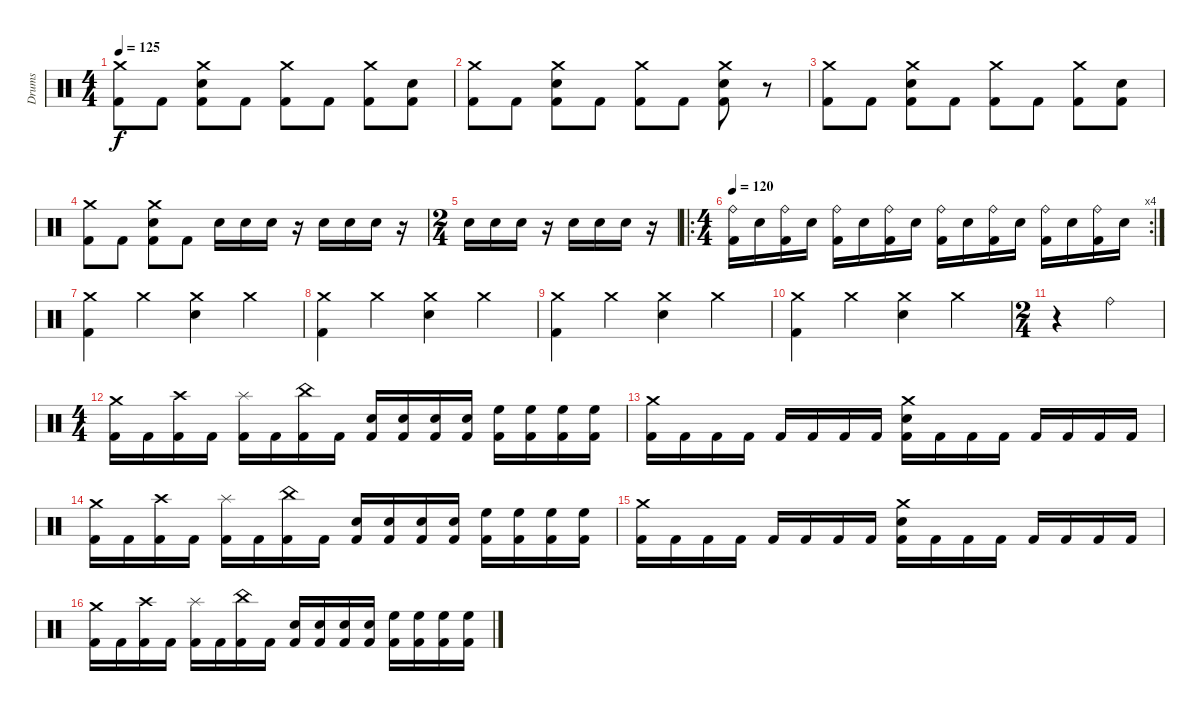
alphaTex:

\track ("Drums" "Drums") {instrument percussion}
\staff {score}
\articulation defaults
\ts (4 4)
\tempo 125
\clef neutral
\ks c
("Crash medium (hit)" "Kick (hit) 2").8{dy f} "Kick (hit) 2".8 ("Crash medium (hit)" "Snare (hit) 2" "Kick (hit) 2").8 "Kick (hit) 2".8 ("Crash medium (hit)" "Kick (hit) 2").8 "Kick (hit) 2".8 ("Crash medium (hit)" "Kick (hit) 2").8 ("Snare (hit) 2" "Kick (hit) 2").8 |
("Crash medium (hit)" "Kick (hit) 2").8 "Kick (hit) 2".8 ("Crash medium (hit)" "Snare (hit) 2" "Kick (hit) 2").8 "Kick (hit) 2".8 ("Crash medium (hit)" "Kick (hit) 2").8 "Kick (hit) 2".8 ("Crash medium (hit)" "Snare (hit) 2" "Kick (hit) 2").8 r.8 |
("Crash medium (hit)" "Kick (hit) 2").8 "Kick (hit) 2".8 ("Crash medium (hit)" "Snare (hit) 2" "Kick (hit) 2").8 "Kick (hit) 2".8 ("Crash medium (hit)" "Kick (hit) 2").8 "Kick (hit) 2".8 ("Crash medium (hit)" "Kick (hit) 2").8 ("Snare (hit) 2" "Kick (hit) 2").8 |
("Crash medium (hit)" "Kick (hit) 2").8 "Kick (hit) 2".8 ("Crash medium (hit)" "Snare (hit) 2" "Kick (hit) 2").8 "Kick (hit) 2".8 "Snare (hit) 2".16 "Snare (hit) 2".16 "Snare (hit) 2".16 r.16 "Snare (hit) 2".16 "Snare (hit) 2".16 "Snare (hit) 2".16 r.16 |
\ts (2 4)
"Snare (hit) 2".16 "Snare (hit) 2".16 "Snare (hit) 2".16 r.16 "Snare (hit) 2".16 "Snare (hit) 2".16 "Snare (hit) 2".16 r.16 |
\ro
\rc 4
\ts (4 4)
\tempo 120
("Ride (bell)" "Kick (hit) 2").16 "Snare (hit) 2".16 ("Ride (bell)" "Kick (hit) 2").16 "Snare (hit) 2".16 ("Ride (bell)" "Kick (hit) 2").16 "Snare (hit) 2".16 ("Ride (bell)" "Kick (hit) 2").16 "Snare (hit) 2".16 ("Ride (bell)" "Kick (hit) 2").16 "Snare (hit) 2".16 ("Ride (bell)" "Kick (hit) 2").16 "Snare (hit) 2".16 ("Ride (bell)" "Kick (hit) 2").16 "Snare (hit) 2".16 ("Ride (bell)" "Kick (hit) 2").16 "Snare (hit) 2".16 |
("Crash medium (hit)" "Kick (hit) 2").4 "Crash medium (hit)".4 ("Crash medium (hit)" "Snare (hit) 2").4 "Crash medium (hit)".4 |
("Crash medium (hit)" "Kick (hit) 2").4 "Crash medium (hit)".4 ("Crash medium (hit)" "Snare (hit) 2").4 "Crash medium (hit)".4 |
("Crash medium (hit)" "Kick (hit) 2").4 "Crash medium (hit)".4 ("Crash medium (hit)" "Snare (hit) 2").4 "Crash medium (hit)".4 |
("Crash medium (hit)" "Kick (hit) 2").4 "Crash medium (hit)".4 ("Crash medium (hit)" "Snare (hit) 2").4 "Crash medium (hit)".4 |
\ts (2 4)
r.4 "Ride (bell)".4 |
\ts (4 4)
("Crash medium (hit)" "Kick (hit) 2").16 "Kick (hit) 2".16 ("Crash high (hit)" "Kick (hit) 2").16 "Kick (hit) 2".16 ("Splash (hit)" "Kick (hit) 2").16 "Kick (hit) 2".16 ("China (hit)" "Kick (hit) 2").16 "Kick (hit) 2".16 ("Snare (hit) 2" "Kick (hit) 2").16 ("Snare (hit) 2" "Kick (hit) 2").16 ("Snare (hit) 2" "Kick (hit) 2").16 ("Snare (hit) 2" "Kick (hit) 2").16 ("High Floor Tom (hit)" "Kick (hit) 2").16 ("High Floor Tom (hit)" "Kick (hit) 2").16 ("High Floor Tom (hit)" "Kick (hit) 2").16 ("High Floor Tom (hit)" "Kick (hit) 2").16 |
("Crash medium (hit)" "Kick (hit) 2").16 "Kick (hit) 2".16 "Kick (hit) 2".16 "Kick (hit) 2".16 "Kick (hit) 2".16 "Kick (hit) 2".16 "Kick (hit) 2".16 "Kick (hit) 2".16 ("Crash medium (hit)" "Snare (hit) 2" "Kick (hit) 2").16 "Kick (hit) 2".16 "Kick (hit) 2".16 "Kick (hit) 2".16 "Kick (hit) 2".16 "Kick (hit) 2".16 "Kick (hit) 2".16 "Kick (hit) 2".16 |
("Crash medium (hit)" "Kick (hit) 2").16 "Kick (hit) 2".16 ("Crash high (hit)" "Kick (hit) 2").16 "Kick (hit) 2".16 ("Splash (hit)" "Kick (hit) 2").16 "Kick (hit) 2".16 ("China (hit)" "Kick (hit) 2").16 "Kick (hit) 2".16 ("Snare (hit) 2" "Kick (hit) 2").16 ("Snare (hit) 2" "Kick (hit) 2").16 ("Snare (hit) 2" "Kick (hit) 2").16 ("Snare (hit) 2" "Kick (hit) 2").16 ("High Floor Tom (hit)" "Kick (hit) 2").16 ("High Floor Tom (hit)" "Kick (hit) 2").16 ("High Floor Tom (hit)" "Kick (hit) 2").16 ("High Floor Tom (hit)" "Kick (hit) 2").16 |
("Crash medium (hit)" "Kick (hit) 2").16 "Kick (hit) 2".16 "Kick (hit) 2".16 "Kick (hit) 2".16 "Kick (hit) 2".16 "Kick (hit) 2".16 "Kick (hit) 2".16 "Kick (hit) 2".16 ("Crash medium (hit)" "Snare (hit) 2" "Kick (hit) 2").16 "Kick (hit) 2".16 "Kick (hit) 2".16 "Kick (hit) 2".16 "Kick (hit) 2".16 "Kick (hit) 2".16 "Kick (hit) 2".16 "Kick (hit) 2".16 |
("Crash medium (hit)" "Kick (hit) 2").16 "Kick (hit) 2".16 ("Crash high (hit)" "Kick (hit) 2").16 "Kick (hit) 2".16 ("Splash (hit)" "Kick (hit) 2").16 "Kick (hit) 2".16 ("China (hit)" "Kick (hit) 2").16 "Kick (hit) 2".16 ("Snare (hit) 2" "Kick (hit) 2").16 ("Snare (hit) 2" "Kick (hit) 2").16 ("Snare (hit) 2" "Kick (hit) 2").16 ("Snare (hit) 2" "Kick (hit) 2").16 ("High Floor Tom (hit)" "Kick (hit) 2").16 ("High Floor Tom (hit)" "Kick (hit) 2").16 ("High Floor Tom (hit)" "Kick (hit) 2").16 ("High Floor Tom (hit)" "Kick (hit) 2").16
